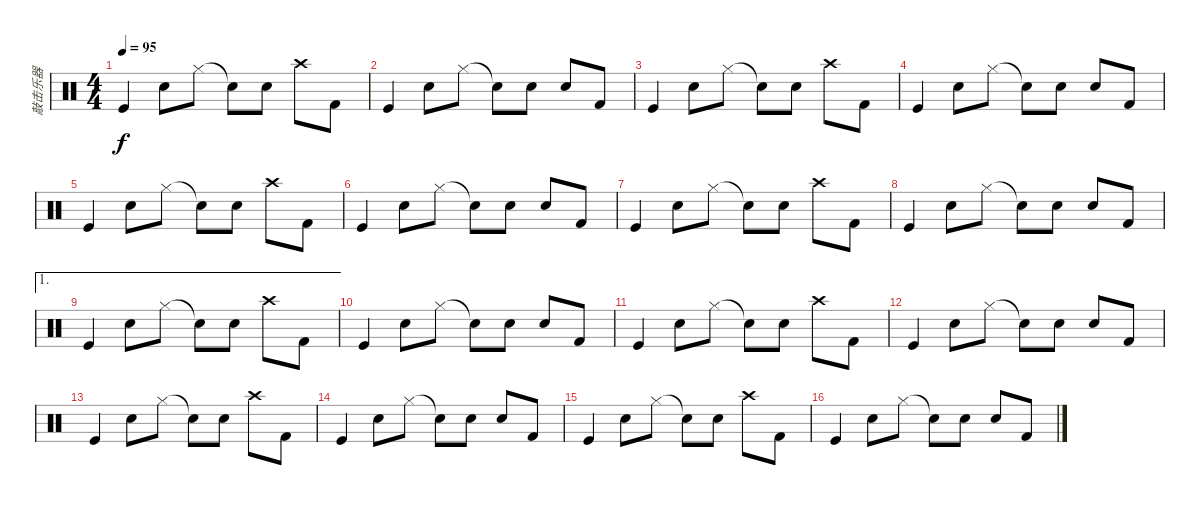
\track ("敲击乐器" "敲击乐器") {instrument percussion}
\staff {score}
\articulation defaults
\ts (4 4)
\tempo 95
\clef neutral
\ks c "Kick (hit)".4{dy f} "Hand Clap (hit)".8 "Hi-Hat (closed)".8 "Snare (hit)"{t}.8 "Hand Clap (hit)".8 "Crash high (hit)".8 "Kick (hit) 2".8
|
"Kick (hit)".4 "Hand Clap (hit)".8 "Hi-Hat (closed)".8 "Snare (hit)"{t}.8 "Hand Clap (hit)".8 "Snare (hit) 2".8 "Kick (hit) 2".8 |
"Kick (hit)".4 "Hand Clap (hit)".8 "Hi-Hat (closed)".8 "Snare (hit)"{t}.8 "Hand Clap (hit)".8 "Crash high (hit)".8 "Kick (hit) 2".8 |
"Kick (hit)".4 "Hand Clap (hit)".8 "Hi-Hat (closed)".8 "Snare (hit)"{t}.8 "Hand Clap (hit)".8 "Snare (hit) 2".8 "Kick (hit) 2".8 |
"Kick (hit)".4 "Hand Clap (hit)".8 "Hi-Hat (closed)".8 "Snare (hit)"{t}.8 "Hand Clap (hit)".8 "Crash high (hit)".8 "Kick (hit) 2".8 |
"Kick (hit)".4 "Hand Clap (hit)".8 "Hi-Hat (closed)".8 "Snare (hit)"{t}.8 "Hand Clap (hit)".8 "Snare (hit) 2".8 "Kick (hit) 2".8 |
"Kick (hit)".4 "Hand Clap (hit)".8 "Hi-Hat (closed)".8 "Snare (hit)"{t}.8 "Hand Clap (hit)".8 "Crash high (hit)".8 "Kick (hit) 2".8 |
"Kick (hit)".4 "Hand Clap (hit)".8 "Hi-Hat (closed)".8 "Snare (hit)"{t}.8 "Hand Clap (hit)".8 "Snare (hit) 2".8 "Kick (hit) 2".8 |
\ae 1 "Kick (hit)".4 "Hand Clap (hit)".8 "Hi-Hat (closed)".8 "Snare (hit)"{t}.8 "Hand Clap (hit)".8 "Crash high (hit)".8 "Kick (hit) 2".8
|
"Kick (hit)".4 "Hand Clap (hit)".8 "Hi-Hat (closed)".8 "Snare (hit)"{t}.8 "Hand Clap (hit)".8 "Snare (hit) 2".8 "Kick (hit) 2".8 |
"Kick (hit)".4 "Hand Clap (hit)".8 "Hi-Hat (closed)".8 "Snare (hit)"{t}.8 "Hand Clap (hit)".8 "Crash high (hit)".8 "Kick (hit) 2".8 |
"Kick (hit)".4 "Hand Clap (hit)".8 "Hi-Hat (closed)".8 "Snare (hit)"{t}.8 "Hand Clap (hit)".8 "Snare (hit) 2".8 "Kick (hit) 2".8 |
"Kick (hit)".4 "Hand Clap (hit)".8 "Hi-Hat (closed)".8 "Snare (hit)"{t}.8 "Hand Clap (hit)".8 "Crash high (hit)".8 "Kick (hit) 2".8 |
"Kick (hit)".4 "Hand Clap (hit)".8 "Hi-Hat (closed)".8 "Snare (hit)"{t}.8 "Hand Clap (hit)".8 "Snare (hit) 2".8 "Kick (hit) 2".8 |
"Kick (hit)".4 "Hand Clap (hit)".8 "Hi-Hat (closed)".8 "Snare (hit)"{t}.8 "Hand Clap (hit)".8 "Crash high (hit)".8 "Kick (hit) 2".8 |
"Kick (hit)".4 "Hand Clap (hit)".8 "Hi-Hat (closed)".8 "Snare (hit)"{t}.8 "Hand Clap (hit)".8 "Snare (hit) 2".8 "Kick (hit) 2".8
